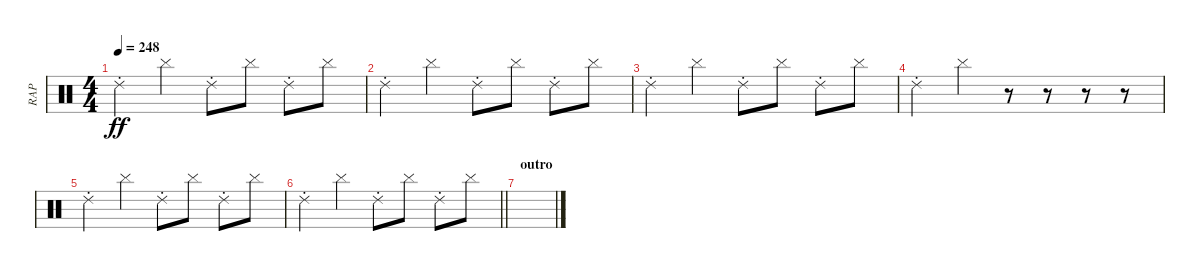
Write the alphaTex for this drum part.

\track ("RAP" "RAP") {instrument percussion}
\staff {score}
\articulation defaults
\ts (4 4)
\tempo 248
\clef neutral
\ks c "Ride (choke) 2".4{dy ff} "Cymbal (hit)".4 "Ride (choke) 2".8 "Cymbal (hit)".8 "Ride (choke) 2".8 "Cymbal (hit)".8
|
"Ride (choke) 2".4 "Cymbal (hit)".4 "Ride (choke) 2".8 "Cymbal (hit)".8 "Ride (choke) 2".8 "Cymbal (hit)".8 |
"Ride (choke) 2".4 "Cymbal (hit)".4 "Ride (choke) 2".8 "Cymbal (hit)".8 "Ride (choke) 2".8 "Cymbal (hit)".8 |
"Ride (choke) 2".4 "Cymbal (hit)".4 r.8 r.8 r.8 r.8 |
"Ride (choke) 2".4 "Cymbal (hit)".4 "Ride (choke) 2".8 "Cymbal (hit)".8 "Ride (choke) 2".8 "Cymbal (hit)".8 |
\barLineRight lightlight "Ride (choke) 2".4 "Cymbal (hit)".4 "Ride (choke) 2".8 "Cymbal (hit)".8 "Ride (choke) 2".8 "Cymbal (hit)".8
|
\section ("" "outro")
